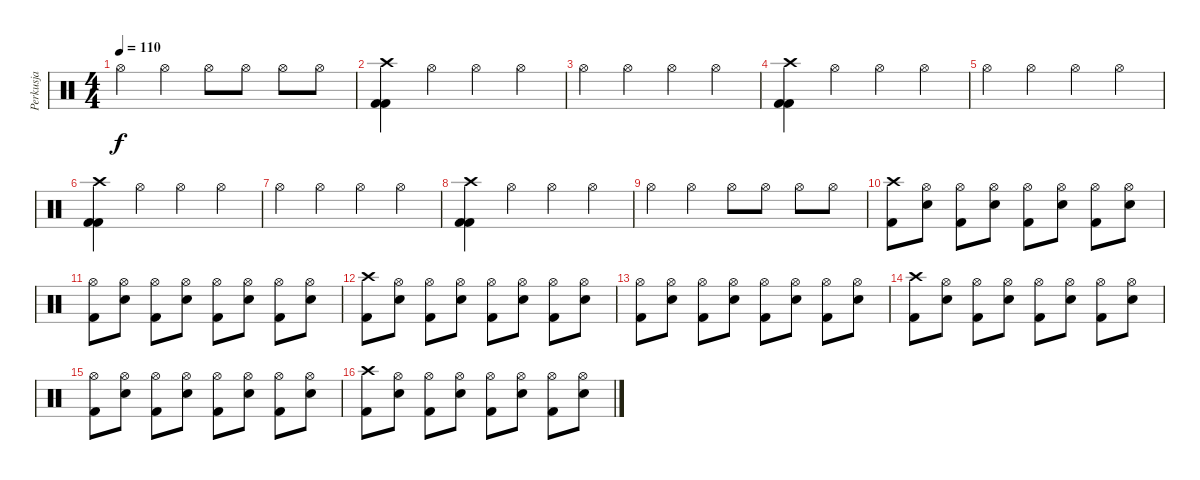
\track ("Perkusja" "Perkusja") {instrument percussion}
\staff {score}
\articulation defaults
\ts (4 4)
\tempo 110
\clef neutral
\ks c "Hi-Hat (open)".4{dy f} "Hi-Hat (open)".4 "Hi-Hat (open)".8 "Hi-Hat (open)".8 "Hi-Hat (open)".8 "Hi-Hat (open)".8
|
("Crash high (hit)" "Kick (hit) 2" "Kick (hit) 2").4 "Hi-Hat (open)".4 "Hi-Hat (open)".4 "Hi-Hat (open)".4 |
"Hi-Hat (open)".4 "Hi-Hat (open)".4 "Hi-Hat (open)".4 "Hi-Hat (open)".4 |
("Crash high (hit)" "Kick (hit) 2" "Kick (hit) 2").4 "Hi-Hat (open)".4 "Hi-Hat (open)".4 "Hi-Hat (open)".4 |
"Hi-Hat (open)".4 "Hi-Hat (open)".4 "Hi-Hat (open)".4 "Hi-Hat (open)".4 |
("Crash high (hit)" "Kick (hit) 2" "Kick (hit) 2").4 "Hi-Hat (open)".4 "Hi-Hat (open)".4 "Hi-Hat (open)".4 |
"Hi-Hat (open)".4 "Hi-Hat (open)".4 "Hi-Hat (open)".4 "Hi-Hat (open)".4 |
("Crash high (hit)" "Kick (hit) 2" "Kick (hit) 2").4 "Hi-Hat (open)".4 "Hi-Hat (open)".4 "Hi-Hat (open)".4 |
"Hi-Hat (open)".4 "Hi-Hat (open)".4 "Hi-Hat (open)".8 "Hi-Hat (open)".8 "Hi-Hat (open)".8 "Hi-Hat (open)".8 |
("Crash high (hit)" "Kick (hit) 2").8 ("Hi-Hat (open)" "Electric Snare (hit)").8 ("Hi-Hat (open)" "Kick (hit) 2").8 ("Hi-Hat (open)" "Electric Snare (hit)").8 ("Hi-Hat (open)" "Kick (hit) 2").8 ("Hi-Hat (open)" "Electric Snare (hit)").8 ("Hi-Hat (open)" "Kick (hit) 2").8 ("Hi-Hat (open)" "Electric Snare (hit)").8 |
("Hi-Hat (open)" "Kick (hit) 2").8 ("Hi-Hat (open)" "Electric Snare (hit)").8 ("Hi-Hat (open)" "Kick (hit) 2").8 ("Hi-Hat (open)" "Electric Snare (hit)").8 ("Hi-Hat (open)" "Kick (hit) 2").8 ("Hi-Hat (open)" "Electric Snare (hit)").8 ("Hi-Hat (open)" "Kick (hit) 2").8 ("Hi-Hat (open)" "Electric Snare (hit)").8 |
("Crash high (hit)" "Kick (hit) 2").8 ("Hi-Hat (open)" "Electric Snare (hit)").8 ("Hi-Hat (open)" "Kick (hit) 2").8 ("Hi-Hat (open)" "Electric Snare (hit)").8 ("Hi-Hat (open)" "Kick (hit) 2").8 ("Hi-Hat (open)" "Electric Snare (hit)").8 ("Hi-Hat (open)" "Kick (hit) 2").8 ("Hi-Hat (open)" "Electric Snare (hit)").8 |
("Hi-Hat (open)" "Kick (hit) 2").8 ("Hi-Hat (open)" "Electric Snare (hit)").8 ("Hi-Hat (open)" "Kick (hit) 2").8 ("Hi-Hat (open)" "Electric Snare (hit)").8 ("Hi-Hat (open)" "Kick (hit) 2").8 ("Hi-Hat (open)" "Electric Snare (hit)").8 ("Hi-Hat (open)" "Kick (hit) 2").8 ("Hi-Hat (open)" "Electric Snare (hit)").8 |
("Crash high (hit)" "Kick (hit) 2").8 ("Hi-Hat (open)" "Electric Snare (hit)").8 ("Hi-Hat (open)" "Kick (hit) 2").8 ("Hi-Hat (open)" "Electric Snare (hit)").8 ("Hi-Hat (open)" "Kick (hit) 2").8 ("Hi-Hat (open)" "Electric Snare (hit)").8 ("Hi-Hat (open)" "Kick (hit) 2").8 ("Hi-Hat (open)" "Electric Snare (hit)").8 |
("Hi-Hat (open)" "Kick (hit) 2").8 ("Hi-Hat (open)" "Electric Snare (hit)").8 ("Hi-Hat (open)" "Kick (hit) 2").8 ("Hi-Hat (open)" "Electric Snare (hit)").8 ("Hi-Hat (open)" "Kick (hit) 2").8 ("Hi-Hat (open)" "Electric Snare (hit)").8 ("Hi-Hat (open)" "Kick (hit) 2").8 ("Hi-Hat (open)" "Electric Snare (hit)").8 |
("Crash high (hit)" "Kick (hit) 2").8 ("Hi-Hat (open)" "Electric Snare (hit)").8 ("Hi-Hat (open)" "Kick (hit) 2").8 ("Hi-Hat (open)" "Electric Snare (hit)").8 ("Hi-Hat (open)" "Kick (hit) 2").8 ("Hi-Hat (open)" "Electric Snare (hit)").8 ("Hi-Hat (open)" "Kick (hit) 2").8 ("Hi-Hat (open)" "Electric Snare (hit)").8
